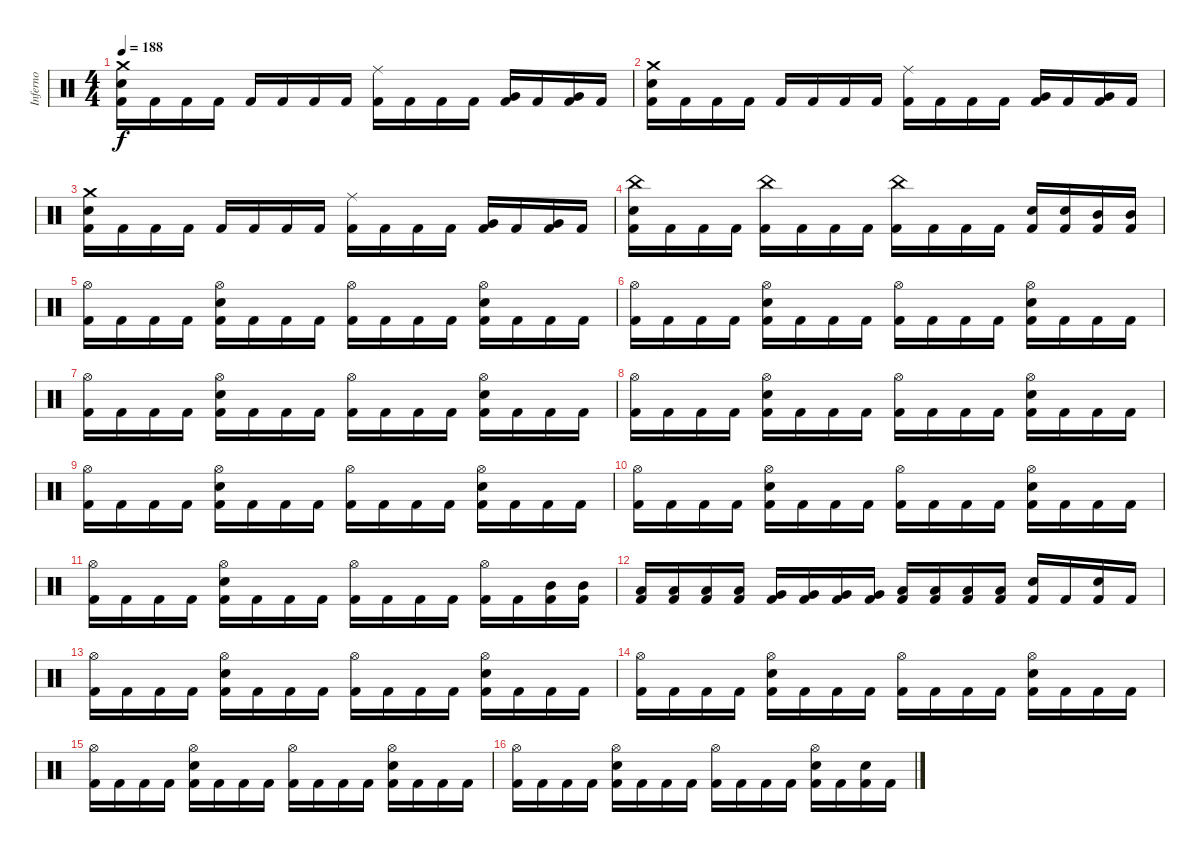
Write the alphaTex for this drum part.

\track ("Inferno" "Inferno") {instrument percussion}
\staff {score}
\articulation defaults
\ts (4 4)
\tempo 188
\clef neutral
\ks c
("Crash medium (hit)" "Snare (hit) 2" "Kick (hit) 2").16{dy f} "Kick (hit) 2".16 "Kick (hit) 2".16 "Kick (hit) 2".16 "Kick (hit) 2".16 "Kick (hit) 2".16 "Kick (hit) 2".16 "Kick (hit) 2".16 ("Ride (middle)" "Kick (hit) 2").16 "Kick (hit) 2".16 "Kick (hit) 2".16 "Kick (hit) 2".16 ("Very Low Tom (hit)" "Kick (hit) 2").16 "Kick (hit) 2".16 ("Very Low Tom (hit)" "Kick (hit) 2").16 "Kick (hit) 2".16 |
("Crash medium (hit)" "Snare (hit) 2" "Kick (hit) 2").16 "Kick (hit) 2".16 "Kick (hit) 2".16 "Kick (hit) 2".16 "Kick (hit) 2".16 "Kick (hit) 2".16 "Kick (hit) 2".16 "Kick (hit) 2".16 ("Ride (middle)" "Kick (hit) 2").16 "Kick (hit) 2".16 "Kick (hit) 2".16 "Kick (hit) 2".16 ("Very Low Tom (hit)" "Kick (hit) 2").16 "Kick (hit) 2".16 ("Very Low Tom (hit)" "Kick (hit) 2").16 "Kick (hit) 2".16 |
("Crash medium (hit)" "Snare (hit) 2" "Kick (hit) 2").16 "Kick (hit) 2".16 "Kick (hit) 2".16 "Kick (hit) 2".16 "Kick (hit) 2".16 "Kick (hit) 2".16 "Kick (hit) 2".16 "Kick (hit) 2".16 ("Ride (middle)" "Kick (hit) 2").16 "Kick (hit) 2".16 "Kick (hit) 2".16 "Kick (hit) 2".16 ("Very Low Tom (hit)" "Kick (hit) 2").16 "Kick (hit) 2".16 ("Very Low Tom (hit)" "Kick (hit) 2").16 "Kick (hit) 2".16 |
("China (hit)" "Snare (hit) 2" "Kick (hit) 2").16 "Kick (hit) 2".16 "Kick (hit) 2".16 "Kick (hit) 2".16 ("China (hit)" "Kick (hit) 2").16 "Kick (hit) 2".16 "Kick (hit) 2".16 "Kick (hit) 2".16 ("China (hit)" "Kick (hit) 2").16 "Kick (hit) 2".16 "Kick (hit) 2".16 "Kick (hit) 2".16 ("Snare (hit) 2" "Kick (hit) 2").16 ("Snare (hit) 2" "Kick (hit) 2").16 ("Mid Tom (hit)" "Kick (hit) 2").16 ("Mid Tom (hit)" "Kick (hit) 2").16 |
("Hi-Hat (open)" "Kick (hit) 2").16 "Kick (hit) 2".16 "Kick (hit) 2".16 "Kick (hit) 2".16 ("Hi-Hat (open)" "Snare (hit) 2" "Kick (hit) 2").16 "Kick (hit) 2".16 "Kick (hit) 2".16 "Kick (hit) 2".16 ("Hi-Hat (open)" "Kick (hit) 2").16 "Kick (hit) 2".16 "Kick (hit) 2".16 "Kick (hit) 2".16 ("Hi-Hat (open)" "Snare (hit) 2" "Kick (hit) 2").16 "Kick (hit) 2".16 "Kick (hit) 2".16 "Kick (hit) 2".16 |
("Hi-Hat (open)" "Kick (hit) 2").16 "Kick (hit) 2".16 "Kick (hit) 2".16 "Kick (hit) 2".16 ("Hi-Hat (open)" "Snare (hit) 2" "Kick (hit) 2").16 "Kick (hit) 2".16 "Kick (hit) 2".16 "Kick (hit) 2".16 ("Hi-Hat (open)" "Kick (hit) 2").16 "Kick (hit) 2".16 "Kick (hit) 2".16 "Kick (hit) 2".16 ("Hi-Hat (open)" "Snare (hit) 2" "Kick (hit) 2").16 "Kick (hit) 2".16 "Kick (hit) 2".16 "Kick (hit) 2".16 |
("Hi-Hat (open)" "Kick (hit) 2").16 "Kick (hit) 2".16 "Kick (hit) 2".16 "Kick (hit) 2".16 ("Hi-Hat (open)" "Snare (hit) 2" "Kick (hit) 2").16 "Kick (hit) 2".16 "Kick (hit) 2".16 "Kick (hit) 2".16 ("Hi-Hat (open)" "Kick (hit) 2").16 "Kick (hit) 2".16 "Kick (hit) 2".16 "Kick (hit) 2".16 ("Hi-Hat (open)" "Snare (hit) 2" "Kick (hit) 2").16 "Kick (hit) 2".16 "Kick (hit) 2".16 "Kick (hit) 2".16 |
("Hi-Hat (open)" "Kick (hit) 2").16 "Kick (hit) 2".16 "Kick (hit) 2".16 "Kick (hit) 2".16 ("Hi-Hat (open)" "Snare (hit) 2" "Kick (hit) 2").16 "Kick (hit) 2".16 "Kick (hit) 2".16 "Kick (hit) 2".16 ("Hi-Hat (open)" "Kick (hit) 2").16 "Kick (hit) 2".16 "Kick (hit) 2".16 "Kick (hit) 2".16 ("Hi-Hat (open)" "Snare (hit) 2" "Kick (hit) 2").16 "Kick (hit) 2".16 "Kick (hit) 2".16 "Kick (hit) 2".16 |
("Hi-Hat (open)" "Kick (hit) 2").16 "Kick (hit) 2".16 "Kick (hit) 2".16 "Kick (hit) 2".16 ("Hi-Hat (open)" "Snare (hit) 2" "Kick (hit) 2").16 "Kick (hit) 2".16 "Kick (hit) 2".16 "Kick (hit) 2".16 ("Hi-Hat (open)" "Kick (hit) 2").16 "Kick (hit) 2".16 "Kick (hit) 2".16 "Kick (hit) 2".16 ("Hi-Hat (open)" "Snare (hit) 2" "Kick (hit) 2").16 "Kick (hit) 2".16 "Kick (hit) 2".16 "Kick (hit) 2".16 |
("Hi-Hat (open)" "Kick (hit) 2").16 "Kick (hit) 2".16 "Kick (hit) 2".16 "Kick (hit) 2".16 ("Hi-Hat (open)" "Snare (hit) 2" "Kick (hit) 2").16 "Kick (hit) 2".16 "Kick (hit) 2".16 "Kick (hit) 2".16 ("Hi-Hat (open)" "Kick (hit) 2").16 "Kick (hit) 2".16 "Kick (hit) 2".16 "Kick (hit) 2".16 ("Hi-Hat (open)" "Snare (hit) 2" "Kick (hit) 2").16 "Kick (hit) 2".16 "Kick (hit) 2".16 "Kick (hit) 2".16 |
("Hi-Hat (open)" "Kick (hit) 2").16 "Kick (hit) 2".16 "Kick (hit) 2".16 "Kick (hit) 2".16 ("Hi-Hat (open)" "Snare (hit) 2" "Kick (hit) 2").16 "Kick (hit) 2".16 "Kick (hit) 2".16 "Kick (hit) 2".16 ("Hi-Hat (open)" "Kick (hit) 2").16 "Kick (hit) 2".16 "Kick (hit) 2".16 "Kick (hit) 2".16 ("Hi-Hat (open)" "Kick (hit) 2").16 "Kick (hit) 2".16 ("Mid Tom (hit)" "Kick (hit) 2").16 ("Mid Tom (hit)" "Kick (hit) 2").16 |
("Low Tom (hit)" "Kick (hit) 2").16 ("Low Tom (hit)" "Kick (hit) 2").16 ("Low Tom (hit)" "Kick (hit) 2").16 ("Low Tom (hit)" "Kick (hit) 2").16 ("Very Low Tom (hit)" "Kick (hit) 2").16 ("Very Low Tom (hit)" "Kick (hit) 2").16 ("Very Low Tom (hit)" "Kick (hit) 2").16 ("Very Low Tom (hit)" "Kick (hit) 2").16 ("Low Floor Tom (hit)" "Kick (hit) 2").16 ("Low Floor Tom (hit)" "Kick (hit) 2").16 ("Low Floor Tom (hit)" "Kick (hit) 2").16 ("Low Floor Tom (hit)" "Kick (hit) 2").16 ("Snare (hit) 2" "Kick (hit) 2").16 "Kick (hit) 2".16 ("Snare (hit) 2" "Kick (hit) 2").16 "Kick (hit) 2".16 |
("Hi-Hat (open)" "Kick (hit) 2").16 "Kick (hit) 2".16 "Kick (hit) 2".16 "Kick (hit) 2".16 ("Hi-Hat (open)" "Snare (hit) 2" "Kick (hit) 2").16 "Kick (hit) 2".16 "Kick (hit) 2".16 "Kick (hit) 2".16 ("Hi-Hat (open)" "Kick (hit) 2").16 "Kick (hit) 2".16 "Kick (hit) 2".16 "Kick (hit) 2".16 ("Hi-Hat (open)" "Snare (hit) 2" "Kick (hit) 2").16 "Kick (hit) 2".16 "Kick (hit) 2".16 "Kick (hit) 2".16 |
("Hi-Hat (open)" "Kick (hit) 2").16 "Kick (hit) 2".16 "Kick (hit) 2".16 "Kick (hit) 2".16 ("Hi-Hat (open)" "Snare (hit) 2" "Kick (hit) 2").16 "Kick (hit) 2".16 "Kick (hit) 2".16 "Kick (hit) 2".16 ("Hi-Hat (open)" "Kick (hit) 2").16 "Kick (hit) 2".16 "Kick (hit) 2".16 "Kick (hit) 2".16 ("Hi-Hat (open)" "Snare (hit) 2" "Kick (hit) 2").16 "Kick (hit) 2".16 "Kick (hit) 2".16 "Kick (hit) 2".16 |
("Hi-Hat (open)" "Kick (hit) 2").16 "Kick (hit) 2".16 "Kick (hit) 2".16 "Kick (hit) 2".16 ("Hi-Hat (open)" "Snare (hit) 2" "Kick (hit) 2").16 "Kick (hit) 2".16 "Kick (hit) 2".16 "Kick (hit) 2".16 ("Hi-Hat (open)" "Kick (hit) 2").16 "Kick (hit) 2".16 "Kick (hit) 2".16 "Kick (hit) 2".16 ("Hi-Hat (open)" "Snare (hit) 2" "Kick (hit) 2").16 "Kick (hit) 2".16 "Kick (hit) 2".16 "Kick (hit) 2".16 |
("Hi-Hat (open)" "Kick (hit) 2").16 "Kick (hit) 2".16 "Kick (hit) 2".16 "Kick (hit) 2".16 ("Hi-Hat (open)" "Snare (hit) 2" "Kick (hit) 2").16 "Kick (hit) 2".16 "Kick (hit) 2".16 "Kick (hit) 2".16 ("Hi-Hat (open)" "Kick (hit) 2").16 "Kick (hit) 2".16 "Kick (hit) 2".16 "Kick (hit) 2".16 ("Hi-Hat (open)" "Snare (hit) 2" "Kick (hit) 2").16 "Kick (hit) 2".16 ("Snare (hit) 2" "Kick (hit) 2").16 "Kick (hit) 2".16
